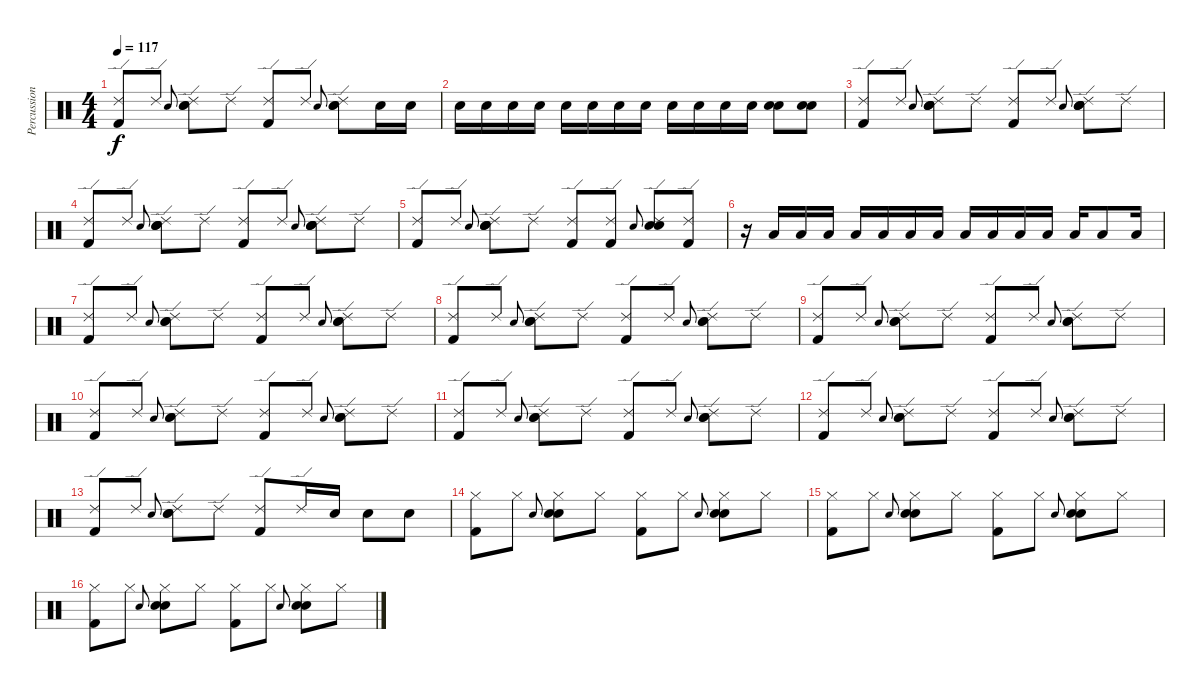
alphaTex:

\track ("Percussion" "Percussion") {instrument percussion}
\staff {score}
\articulation defaults
\ts (4 4)
\tempo 117
\clef neutral
\ks c
("Ride (edge) 2" "Kick (hit) 2").8{dy f} "Ride (edge) 2".8 "Electric Snare (hit)".8{gr onbeat} ("Ride (edge) 2" "Electric Snare (hit)" "Electric Snare (hit)").8 "Ride (edge) 2".8 ("Ride (edge) 2" "Kick (hit) 2").8 "Ride (edge) 2".8 "Electric Snare (hit)".8{gr onbeat} ("Ride (edge) 2" "Electric Snare (hit)" "Electric Snare (hit)").8 "Electric Snare (hit)".16 "Electric Snare (hit)".16 |
"Electric Snare (hit)".16 "Electric Snare (hit)".16 "Electric Snare (hit)".16 "Electric Snare (hit)".16 "Electric Snare (hit)".16 "Electric Snare (hit)".16 "Electric Snare (hit)".16 "Electric Snare (hit)".16 "Electric Snare (hit)".16 "Electric Snare (hit)".16 "Electric Snare (hit)".16 "Electric Snare (hit)".16 ("Electric Snare (hit)" "Electric Snare (hit)").8 ("Electric Snare (hit)" "Electric Snare (hit)").8 |
("Ride (edge) 2" "Kick (hit) 2").8 "Ride (edge) 2".8 "Electric Snare (hit)".8{gr onbeat} ("Ride (edge) 2" "Hand Clap (hit)" "Electric Snare (hit)" "Electric Snare (hit)").8 "Ride (edge) 2".8 ("Ride (edge) 2" "Kick (hit) 2").8 "Ride (edge) 2".8 "Electric Snare (hit)".8{gr onbeat} ("Ride (edge) 2" "Hand Clap (hit)" "Electric Snare (hit)" "Electric Snare (hit)").8 "Ride (edge) 2".8 |
("Ride (edge) 2" "Kick (hit) 2").8 "Ride (edge) 2".8 "Electric Snare (hit)".8{gr onbeat} ("Ride (edge) 2" "Hand Clap (hit)" "Electric Snare (hit)" "Electric Snare (hit)").8 "Ride (edge) 2".8 ("Ride (edge) 2" "Kick (hit) 2").8 "Ride (edge) 2".8 "Electric Snare (hit)".8{gr onbeat} ("Ride (edge) 2" "Hand Clap (hit)" "Electric Snare (hit)" "Electric Snare (hit)").8 "Ride (edge) 2".8 |
("Ride (edge) 2" "Kick (hit) 2").8 "Ride (edge) 2".8 "Electric Snare (hit)".8{gr onbeat} ("Ride (edge) 2" "Hand Clap (hit)" "Electric Snare (hit)" "Electric Snare (hit)").8 "Ride (edge) 2".8 ("Ride (edge) 2" "Kick (hit) 2").8 ("Ride (edge) 2" "Kick (hit) 2").8 "Electric Snare (hit)".8{gr onbeat} ("Ride (edge) 2" "Electric Snare (hit)" "Electric Snare (hit)").8 ("Ride (edge) 2" "Kick (hit) 2").8 |
r.16 "Low Tom (hit)".16 "Low Tom (hit)".16 "Low Tom (hit)".16 "Low Tom (hit)".16 "Low Tom (hit)".16 "Low Tom (hit)".16 "Low Tom (hit)".16 "Low Tom (hit)".16 "Low Tom (hit)".16 "Low Tom (hit)".16 "Low Tom (hit)".16 "Low Tom (hit)".16 "Low Tom (hit)".8 "Low Floor Tom (hit)".16 |
("Ride (edge) 2" "Kick (hit) 2").8 "Ride (edge) 2".8 "Electric Snare (hit)".8{gr onbeat} ("Ride (edge) 2" "Electric Snare (hit)" "Electric Snare (hit)").8 "Ride (edge) 2".8 ("Ride (edge) 2" "Kick (hit) 2").8 "Ride (edge) 2".8 "Electric Snare (hit)".8{gr onbeat} ("Ride (edge) 2" "Electric Snare (hit)" "Electric Snare (hit)").8 "Ride (edge) 2".8 |
("Ride (edge) 2" "Kick (hit) 2").8 "Ride (edge) 2".8 "Electric Snare (hit)".8{gr onbeat} ("Ride (edge) 2" "Electric Snare (hit)" "Electric Snare (hit)").8 "Ride (edge) 2".8 ("Ride (edge) 2" "Kick (hit) 2").8 "Ride (edge) 2".8 "Electric Snare (hit)".8{gr onbeat} ("Ride (edge) 2" "Electric Snare (hit)" "Electric Snare (hit)").8 "Ride (edge) 2".8 |
("Ride (edge) 2" "Kick (hit) 2").8 "Ride (edge) 2".8 "Electric Snare (hit)".8{gr onbeat} ("Ride (edge) 2" "Electric Snare (hit)" "Electric Snare (hit)").8 "Ride (edge) 2".8 ("Ride (edge) 2" "Kick (hit) 2").8 "Ride (edge) 2".8 "Electric Snare (hit)".8{gr onbeat} ("Ride (edge) 2" "Electric Snare (hit)" "Electric Snare (hit)").8 "Ride (edge) 2".8 |
("Ride (edge) 2" "Kick (hit) 2").8 "Ride (edge) 2".8 "Electric Snare (hit)".8{gr onbeat} ("Ride (edge) 2" "Electric Snare (hit)" "Electric Snare (hit)").8 "Ride (edge) 2".8 ("Ride (edge) 2" "Kick (hit) 2").8 "Ride (edge) 2".8 "Electric Snare (hit)".8{gr onbeat} ("Ride (edge) 2" "Electric Snare (hit)" "Electric Snare (hit)").8 "Ride (edge) 2".8 |
("Ride (edge) 2" "Kick (hit) 2").8 "Ride (edge) 2".8 "Electric Snare (hit)".8{gr onbeat} ("Ride (edge) 2" "Electric Snare (hit)" "Electric Snare (hit)").8 "Ride (edge) 2".8 ("Ride (edge) 2" "Kick (hit) 2").8 "Ride (edge) 2".8 "Electric Snare (hit)".8{gr onbeat} ("Ride (edge) 2" "Electric Snare (hit)" "Electric Snare (hit)").8 "Ride (edge) 2".8 |
("Ride (edge) 2" "Kick (hit) 2").8 "Ride (edge) 2".8 "Electric Snare (hit)".8{gr onbeat} ("Ride (edge) 2" "Electric Snare (hit)" "Electric Snare (hit)").8 "Ride (edge) 2".8 ("Ride (edge) 2" "Kick (hit) 2").8 "Ride (edge) 2".8 "Electric Snare (hit)".8{gr onbeat} ("Ride (edge) 2" "Electric Snare (hit)" "Electric Snare (hit)").8 "Ride (edge) 2".8 |
("Ride (edge) 2" "Kick (hit) 2").8 "Ride (edge) 2".8 "Electric Snare (hit)".8{gr onbeat} ("Ride (edge) 2" "Electric Snare (hit)" "Electric Snare (hit)").8 "Ride (edge) 2".8 ("Ride (edge) 2" "Kick (hit) 2").8 "Ride (edge) 2".16 "Electric Snare (hit)".16 "Electric Snare (hit)".8 "Electric Snare (hit)".8 |
("Hi-Hat (closed)" "Kick (hit) 2").8 "Hi-Hat (closed)".8 "Electric Snare (hit)".8{gr onbeat} ("Hi-Hat (closed)" "Electric Snare (hit)" "Electric Snare (hit)").8 "Hi-Hat (closed)".8 ("Hi-Hat (closed)" "Kick (hit) 2").8 "Hi-Hat (closed)".8 "Electric Snare (hit)".8{gr onbeat} ("Hi-Hat (closed)" "Electric Snare (hit)" "Electric Snare (hit)").8 "Hi-Hat (closed)".8 |
("Hi-Hat (closed)" "Kick (hit) 2").8 "Hi-Hat (closed)".8 "Electric Snare (hit)".8{gr onbeat} ("Hi-Hat (closed)" "Electric Snare (hit)" "Electric Snare (hit)").8 "Hi-Hat (closed)".8 ("Hi-Hat (closed)" "Kick (hit) 2").8 "Hi-Hat (closed)".8 "Electric Snare (hit)".8{gr onbeat} ("Hi-Hat (closed)" "Electric Snare (hit)" "Electric Snare (hit)").8 "Hi-Hat (closed)".8 |
("Hi-Hat (closed)" "Kick (hit) 2").8 "Hi-Hat (closed)".8 "Electric Snare (hit)".8{gr onbeat} ("Hi-Hat (closed)" "Electric Snare (hit)" "Electric Snare (hit)").8 "Hi-Hat (closed)".8 ("Hi-Hat (closed)" "Kick (hit) 2").8 "Hi-Hat (closed)".8 "Electric Snare (hit)".8{gr onbeat} ("Hi-Hat (closed)" "Electric Snare (hit)" "Electric Snare (hit)").8 "Hi-Hat (closed)".8
